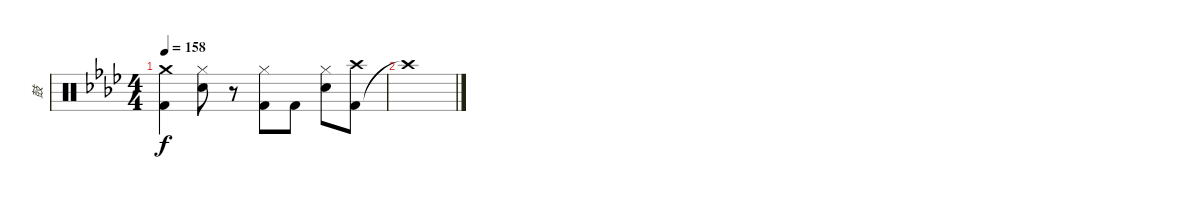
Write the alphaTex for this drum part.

\track ("鼓" "鼓") {instrument percussion}
\staff {score}
\articulation defaults
\ts (4 4)
\tempo 158
\clef neutral
\ks ab
("Crash medium (hit)" "Kick (hit) 2").4{dy f} ("Hi-Hat (closed)" "Electric Snare (hit)").8 r.8 ("Hi-Hat (closed)" "Kick (hit) 2").8 "Kick (hit) 2".8 ("Hi-Hat (closed)" "Electric Snare (hit)").8 ("Kick (hit) 2" "Crash high (hit)").8 |
"Crash high (hit)"{t}.1
